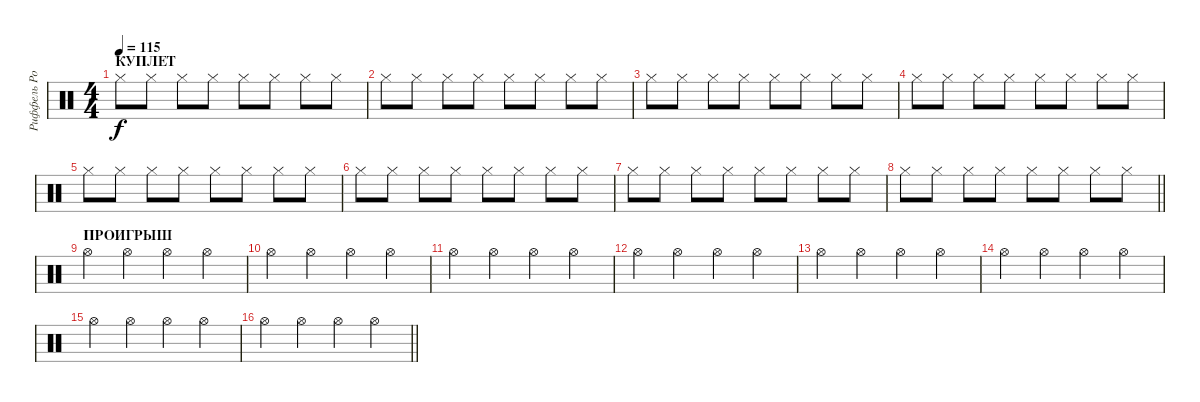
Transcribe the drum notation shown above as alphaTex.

\track ("Риффель Роман (хэты)" "Риффель Ро") {instrument percussion}
\staff {score}
\articulation defaults
\ts (4 4)
\section ("" "КУПЛЕТ")
\tempo 115
\clef neutral
\ks c "Hi-Hat (closed)".8{dy f} "Hi-Hat (closed)".8 "Hi-Hat (closed)".8 "Hi-Hat (closed)".8 "Hi-Hat (closed)".8 "Hi-Hat (closed)".8 "Hi-Hat (closed)".8 "Hi-Hat (closed)".8
|
"Hi-Hat (closed)".8 "Hi-Hat (closed)".8 "Hi-Hat (closed)".8 "Hi-Hat (closed)".8 "Hi-Hat (closed)".8 "Hi-Hat (closed)".8 "Hi-Hat (closed)".8 "Hi-Hat (closed)".8 |
"Hi-Hat (closed)".8 "Hi-Hat (closed)".8 "Hi-Hat (closed)".8 "Hi-Hat (closed)".8 "Hi-Hat (closed)".8 "Hi-Hat (closed)".8 "Hi-Hat (closed)".8 "Hi-Hat (closed)".8 |
"Hi-Hat (closed)".8 "Hi-Hat (closed)".8 "Hi-Hat (closed)".8 "Hi-Hat (closed)".8 "Hi-Hat (closed)".8 "Hi-Hat (closed)".8 "Hi-Hat (closed)".8 "Hi-Hat (closed)".8 |
"Hi-Hat (closed)".8 "Hi-Hat (closed)".8 "Hi-Hat (closed)".8 "Hi-Hat (closed)".8 "Hi-Hat (closed)".8 "Hi-Hat (closed)".8 "Hi-Hat (closed)".8 "Hi-Hat (closed)".8 |
"Hi-Hat (closed)".8 "Hi-Hat (closed)".8 "Hi-Hat (closed)".8 "Hi-Hat (closed)".8 "Hi-Hat (closed)".8 "Hi-Hat (closed)".8 "Hi-Hat (closed)".8 "Hi-Hat (closed)".8 |
"Hi-Hat (closed)".8 "Hi-Hat (closed)".8 "Hi-Hat (closed)".8 "Hi-Hat (closed)".8 "Hi-Hat (closed)".8 "Hi-Hat (closed)".8 "Hi-Hat (closed)".8 "Hi-Hat (closed)".8 |
\barLineRight lightlight "Hi-Hat (closed)".8 "Hi-Hat (closed)".8 "Hi-Hat (closed)".8 "Hi-Hat (closed)".8 "Hi-Hat (closed)".8 "Hi-Hat (closed)".8 "Hi-Hat (closed)".8 "Hi-Hat (closed)".8
|
\section ("" "ПРОИГРЫШ")
"Hi-Hat (open)".4 "Hi-Hat (open)".4 "Hi-Hat (open)".4 "Hi-Hat (open)".4 |
"Hi-Hat (open)".4 "Hi-Hat (open)".4 "Hi-Hat (open)".4 "Hi-Hat (open)".4 |
"Hi-Hat (open)".4 "Hi-Hat (open)".4 "Hi-Hat (open)".4 "Hi-Hat (open)".4 |
"Hi-Hat (open)".4 "Hi-Hat (open)".4 "Hi-Hat (open)".4 "Hi-Hat (open)".4 |
"Hi-Hat (open)".4 "Hi-Hat (open)".4 "Hi-Hat (open)".4 "Hi-Hat (open)".4 |
"Hi-Hat (open)".4 "Hi-Hat (open)".4 "Hi-Hat (open)".4 "Hi-Hat (open)".4 |
"Hi-Hat (open)".4 "Hi-Hat (open)".4 "Hi-Hat (open)".4 "Hi-Hat (open)".4 |
\barLineRight lightlight "Hi-Hat (open)".4 "Hi-Hat (open)".4 "Hi-Hat (open)".4 "Hi-Hat (open)".4
